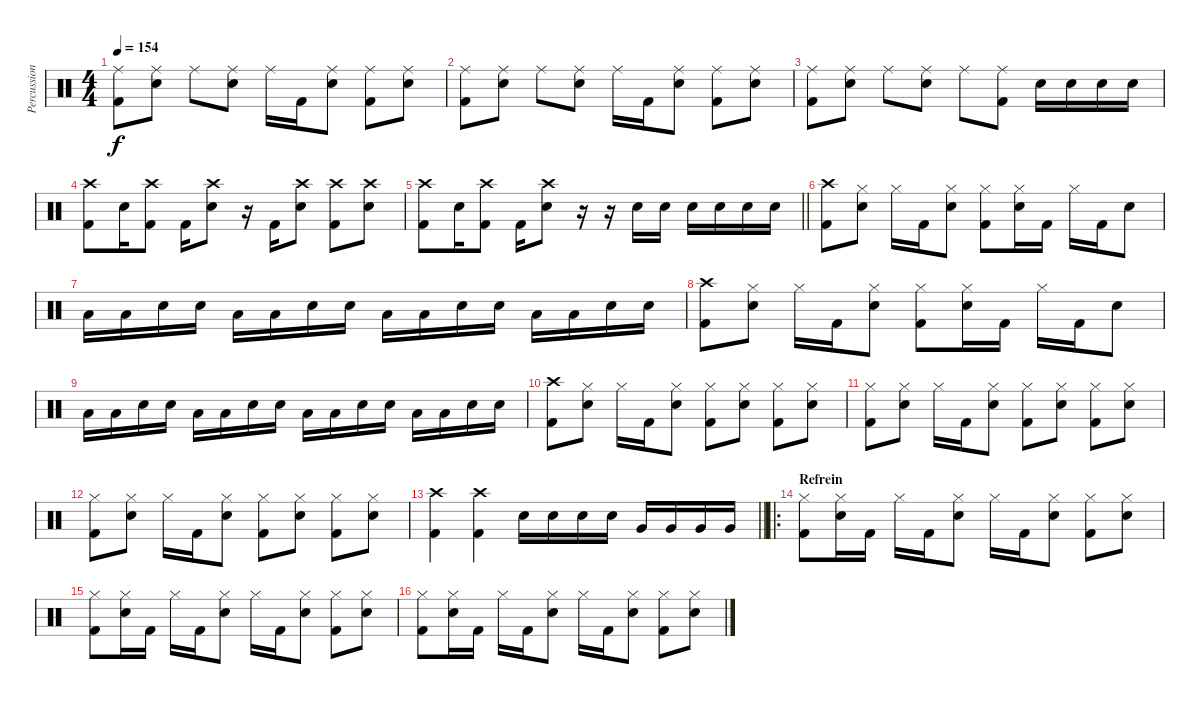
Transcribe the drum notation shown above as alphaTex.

\track ("Percussion" "Percussion") {instrument percussion}
\staff {score}
\articulation defaults
\ts (4 4)
\tempo 154
\clef neutral
\ks c
("Ride (middle)" "Kick (hit) 2").8{dy f} ("Ride (middle)" "Snare (hit) 2").8 "Ride (middle)".8 ("Ride (middle)" "Snare (hit) 2").8 "Ride (middle)".16 "Kick (hit) 2".16 ("Ride (middle)" "Snare (hit) 2").8 ("Ride (middle)" "Kick (hit) 2").8 ("Ride (middle)" "Snare (hit) 2").8 |
("Ride (middle)" "Kick (hit) 2").8 ("Ride (middle)" "Snare (hit) 2").8 "Ride (middle)".8 ("Ride (middle)" "Snare (hit) 2").8 "Ride (middle)".16 "Kick (hit) 2".16 ("Ride (middle)" "Snare (hit) 2").8 ("Ride (middle)" "Kick (hit) 2").8 ("Ride (middle)" "Snare (hit) 2").8 |
("Ride (middle)" "Kick (hit) 2").8 ("Ride (middle)" "Snare (hit) 2").8 "Ride (middle)".8 ("Ride (middle)" "Snare (hit) 2").8 "Ride (middle)".8 ("Ride (middle)" "Kick (hit) 2").8 "Snare (hit) 2".16 "Snare (hit) 2".16 "Snare (hit) 2".16 "Snare (hit) 2".16 |
("Crash high (hit)" "Kick (hit) 2").8 "Snare (hit) 2".16 ("Crash high (hit)" "Kick (hit) 2").8 "Kick (hit) 2".16 ("Crash high (hit)" "Snare (hit) 2").8 r.16 "Kick (hit) 2".16 ("Crash high (hit)" "Snare (hit) 2").8 ("Crash high (hit)" "Kick (hit) 2").8 ("Crash high (hit)" "Snare (hit) 2").8 |
\barLineRight lightlight
("Crash high (hit)" "Kick (hit) 2").8 "Snare (hit) 2".16 ("Crash high (hit)" "Kick (hit) 2").8 "Kick (hit) 2".16 ("Crash high (hit)" "Snare (hit) 2").8 r.16 r.16 "Snare (hit) 2".16 "Snare (hit) 2".16 "Snare (hit) 2".16 "Snare (hit) 2".16 "Snare (hit) 2".16 "Snare (hit) 2".16 |
("Crash high (hit)" "Kick (hit) 2").8 ("Hi-Hat (closed)" "Snare (hit) 2").8 "Hi-Hat (closed)".16 "Kick (hit) 2".16 ("Hi-Hat (closed)" "Snare (hit) 2").8 ("Hi-Hat (closed)" "Kick (hit) 2").8 ("Hi-Hat (closed)" "Snare (hit) 2").16 "Kick (hit) 2".16 "Hi-Hat (closed)".16 "Kick (hit) 2".16 "Snare (hit) 2".8 |
"Low Tom (hit)".16 "Low Tom (hit)".16 "Snare (hit) 2".16 "Snare (hit) 2".16 "Low Tom (hit)".16 "Low Tom (hit)".16 "Snare (hit) 2".16 "Snare (hit) 2".16 "Low Tom (hit)".16 "Low Tom (hit)".16 "Snare (hit) 2".16 "Snare (hit) 2".16 "Low Tom (hit)".16 "Low Tom (hit)".16 "Snare (hit) 2".16 "Snare (hit) 2".16 |
("Crash high (hit)" "Kick (hit) 2").8 ("Hi-Hat (closed)" "Snare (hit) 2").8 "Hi-Hat (closed)".16 "Kick (hit) 2".16 ("Hi-Hat (closed)" "Snare (hit) 2").8 ("Hi-Hat (closed)" "Kick (hit) 2").8 ("Hi-Hat (closed)" "Snare (hit) 2").16 "Kick (hit) 2".16 "Hi-Hat (closed)".16 "Kick (hit) 2".16 "Snare (hit) 2".8 |
"Low Tom (hit)".16 "Low Tom (hit)".16 "Snare (hit) 2".16 "Snare (hit) 2".16 "Low Tom (hit)".16 "Low Tom (hit)".16 "Snare (hit) 2".16 "Snare (hit) 2".16 "Low Tom (hit)".16 "Low Tom (hit)".16 "Snare (hit) 2".16 "Snare (hit) 2".16 "Low Tom (hit)".16 "Low Tom (hit)".16 "Snare (hit) 2".16 "Snare (hit) 2".16 |
("Crash high (hit)" "Kick (hit) 2").8 ("Hi-Hat (closed)" "Snare (hit) 2").8 "Hi-Hat (closed)".16 "Kick (hit) 2".16 ("Hi-Hat (closed)" "Snare (hit) 2").8 ("Hi-Hat (closed)" "Kick (hit) 2").8 ("Hi-Hat (closed)" "Snare (hit) 2").8 ("Hi-Hat (closed)" "Kick (hit) 2").8 ("Hi-Hat (closed)" "Snare (hit) 2").8 |
("Hi-Hat (closed)" "Kick (hit) 2").8 ("Hi-Hat (closed)" "Snare (hit) 2").8 "Hi-Hat (closed)".16 "Kick (hit) 2".16 ("Hi-Hat (closed)" "Snare (hit) 2").8 ("Hi-Hat (closed)" "Kick (hit) 2").8 ("Hi-Hat (closed)" "Snare (hit) 2").8 ("Hi-Hat (closed)" "Kick (hit) 2").8 ("Hi-Hat (closed)" "Snare (hit) 2").8 |
("Hi-Hat (closed)" "Kick (hit) 2").8 ("Hi-Hat (closed)" "Snare (hit) 2").8 "Hi-Hat (closed)".16 "Kick (hit) 2".16 ("Hi-Hat (closed)" "Snare (hit) 2").8 ("Hi-Hat (closed)" "Kick (hit) 2").8 ("Hi-Hat (closed)" "Snare (hit) 2").8 ("Hi-Hat (closed)" "Kick (hit) 2").8 ("Hi-Hat (closed)" "Snare (hit) 2").8 |
\barLineRight lightlight
("Crash high (hit)" "Kick (hit) 2").4 ("Crash high (hit)" "Kick (hit) 2").4 "Snare (hit) 2".16 "Snare (hit) 2".16 "Snare (hit) 2".16 "Snare (hit) 2".16 "Very Low Tom (hit)".16 "Very Low Tom (hit)".16 "Very Low Tom (hit)".16 "Very Low Tom (hit)".16 |
\ro
\section ("" "Refrein")
("Hi-Hat (closed)" "Kick (hit) 2").8 ("Hi-Hat (closed)" "Snare (hit) 2").16 "Kick (hit) 2".16 "Hi-Hat (closed)".16 "Kick (hit) 2".16 ("Hi-Hat (closed)" "Snare (hit) 2").8 "Hi-Hat (closed)".16 "Kick (hit) 2".16 ("Hi-Hat (closed)" "Snare (hit) 2").8 ("Hi-Hat (closed)" "Kick (hit) 2").8 ("Hi-Hat (closed)" "Snare (hit) 2").8 |
("Hi-Hat (closed)" "Kick (hit) 2").8 ("Hi-Hat (closed)" "Snare (hit) 2").16 "Kick (hit) 2".16 "Hi-Hat (closed)".16 "Kick (hit) 2".16 ("Hi-Hat (closed)" "Snare (hit) 2").8 "Hi-Hat (closed)".16 "Kick (hit) 2".16 ("Hi-Hat (closed)" "Snare (hit) 2").8 ("Hi-Hat (closed)" "Kick (hit) 2").8 ("Hi-Hat (closed)" "Snare (hit) 2").8 |
("Hi-Hat (closed)" "Kick (hit) 2").8 ("Hi-Hat (closed)" "Snare (hit) 2").16 "Kick (hit) 2".16 "Hi-Hat (closed)".16 "Kick (hit) 2".16 ("Hi-Hat (closed)" "Snare (hit) 2").8 "Hi-Hat (closed)".16 "Kick (hit) 2".16 ("Hi-Hat (closed)" "Snare (hit) 2").8 ("Hi-Hat (closed)" "Kick (hit) 2").8 ("Hi-Hat (closed)" "Snare (hit) 2").8
